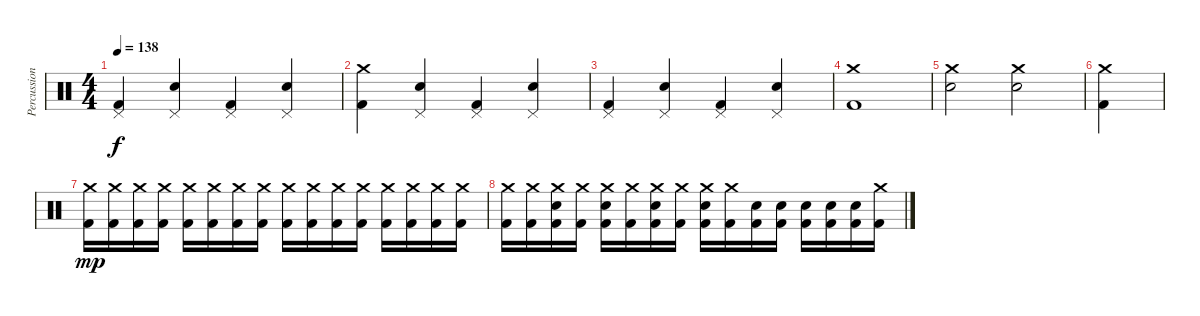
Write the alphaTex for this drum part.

\track ("Percussion" "Percussion") {instrument percussion}
\staff {score}
\articulation defaults
\ts (4 4)
\tempo 138
\clef neutral
\ks c
("Pedal Hi-Hat (hit)" "Kick (hit) 2").4{dy f} ("Pedal Hi-Hat (hit)" "Snare (hit) 2").4 ("Pedal Hi-Hat (hit)" "Kick (hit) 2").4 ("Pedal Hi-Hat (hit)" "Snare (hit) 2").4 |
("Crash medium (hit)" "Kick (hit) 2").4 ("Pedal Hi-Hat (hit)" "Snare (hit) 2").4 ("Pedal Hi-Hat (hit)" "Kick (hit) 2").4 ("Pedal Hi-Hat (hit)" "Snare (hit) 2").4 |
("Pedal Hi-Hat (hit)" "Kick (hit) 2").4 ("Pedal Hi-Hat (hit)" "Snare (hit) 2").4 ("Pedal Hi-Hat (hit)" "Kick (hit) 2").4 ("Pedal Hi-Hat (hit)" "Snare (hit) 2").4 |
("Crash medium (hit)" "Kick (hit) 2").1 |
("Crash medium (hit)" "Snare (hit) 2").2 ("Crash medium (hit)" "Snare (hit) 2").2 |
("Crash medium (hit)" "Kick (hit) 2").4 |
("Crash medium (hit)" "Kick (hit) 2").16{dy mp} ("Crash medium (hit)" "Kick (hit) 2").16 ("Crash medium (hit)" "Kick (hit) 2").16 ("Crash medium (hit)" "Kick (hit) 2").16 ("Crash medium (hit)" "Kick (hit) 2").16 ("Crash medium (hit)" "Kick (hit) 2").16 ("Crash medium (hit)" "Kick (hit) 2").16 ("Crash medium (hit)" "Kick (hit) 2").16 ("Crash medium (hit)" "Kick (hit) 2").16 ("Crash medium (hit)" "Kick (hit) 2").16 ("Crash medium (hit)" "Kick (hit) 2").16 ("Crash medium (hit)" "Kick (hit) 2").16 ("Crash medium (hit)" "Kick (hit) 2").16 ("Crash medium (hit)" "Kick (hit) 2").16 ("Crash medium (hit)" "Kick (hit) 2").16 ("Crash medium (hit)" "Kick (hit) 2").16 |
("Crash medium (hit)" "Kick (hit) 2").16 ("Crash medium (hit)" "Kick (hit) 2").16 ("Crash medium (hit)" "Snare (hit) 2" "Kick (hit) 2").16 ("Crash medium (hit)" "Kick (hit) 2").16 ("Crash medium (hit)" "Snare (hit) 2" "Kick (hit) 2").16 ("Crash medium (hit)" "Kick (hit) 2").16 ("Crash medium (hit)" "Snare (hit) 2" "Kick (hit) 2").16 ("Crash medium (hit)" "Kick (hit) 2").16 ("Crash medium (hit)" "Snare (hit) 2" "Kick (hit) 2").16 ("Crash medium (hit)" "Kick (hit) 2").16 ("Snare (hit) 2" "Kick (hit) 2").16 ("Snare (hit) 2" "Kick (hit) 2").16 ("Snare (hit) 2" "Kick (hit) 2").16 ("Snare (hit) 2" "Kick (hit) 2").16 ("Snare (hit) 2" "Kick (hit) 2").16 ("Crash medium (hit)" "Kick (hit) 2").16
